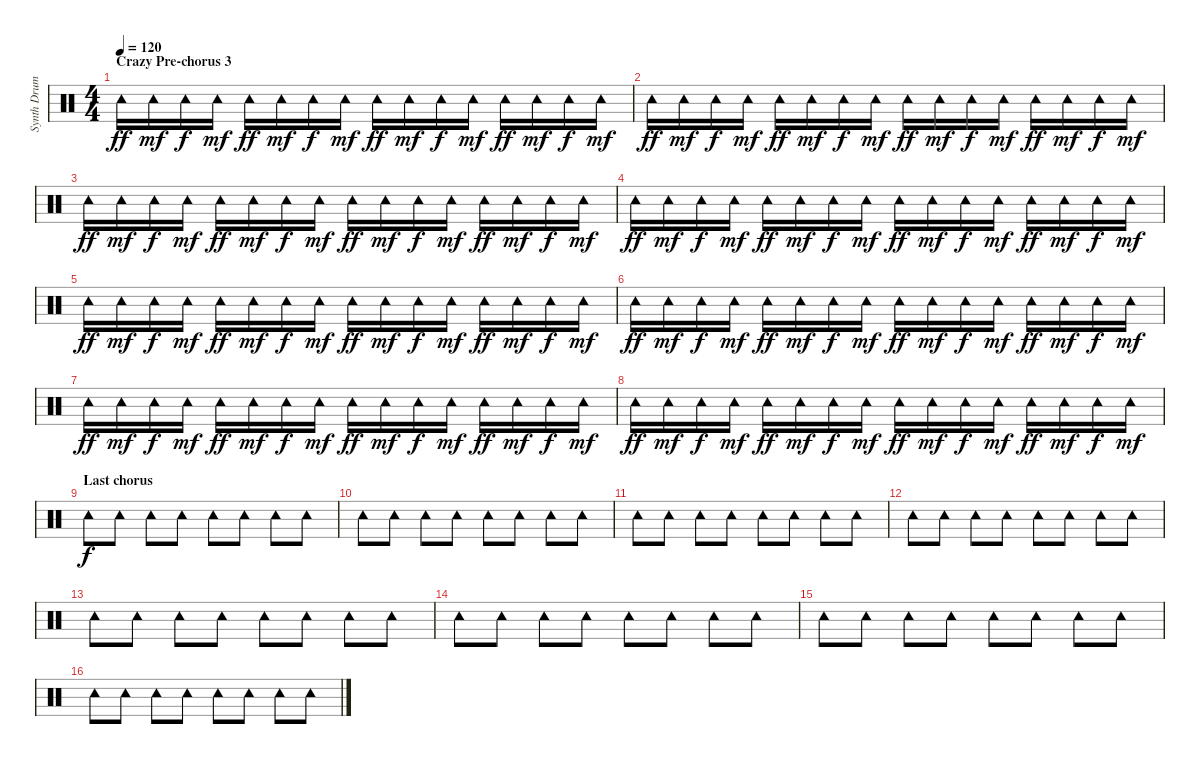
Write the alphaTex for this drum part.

\track ("Synth Drums hihat etc..." "Synth Drum") {instrument percussion}
\staff {score}
\articulation defaults
\ts (4 4)
\section ("" "Crazy Pre-chorus 3")
\tempo 120
\clef neutral
\ks c "Tambourine (hit)".16{dy ff} "Tambourine (hit)".16{dy mf} "Tambourine (hit)".16{dy f} "Tambourine (hit)".16{dy mf} "Tambourine (hit)".16{dy ff} "Tambourine (hit)".16{dy mf} "Tambourine (hit)".16{dy f} "Tambourine (hit)".16{dy mf} "Tambourine (hit)".16{dy ff} "Tambourine (hit)".16{dy mf} "Tambourine (hit)".16{dy f} "Tambourine (hit)".16{dy mf} "Tambourine (hit)".16{dy ff} "Tambourine (hit)".16{dy mf} "Tambourine (hit)".16{dy f} "Tambourine (hit)".16{dy mf}
|
"Tambourine (hit)".16{dy ff} "Tambourine (hit)".16{dy mf} "Tambourine (hit)".16{dy f} "Tambourine (hit)".16{dy mf} "Tambourine (hit)".16{dy ff} "Tambourine (hit)".16{dy mf} "Tambourine (hit)".16{dy f} "Tambourine (hit)".16{dy mf} "Tambourine (hit)".16{dy ff} "Tambourine (hit)".16{dy mf} "Tambourine (hit)".16{dy f} "Tambourine (hit)".16{dy mf} "Tambourine (hit)".16{dy ff} "Tambourine (hit)".16{dy mf} "Tambourine (hit)".16{dy f} "Tambourine (hit)".16{dy mf} |
"Tambourine (hit)".16{dy ff} "Tambourine (hit)".16{dy mf} "Tambourine (hit)".16{dy f} "Tambourine (hit)".16{dy mf} "Tambourine (hit)".16{dy ff} "Tambourine (hit)".16{dy mf} "Tambourine (hit)".16{dy f} "Tambourine (hit)".16{dy mf} "Tambourine (hit)".16{dy ff} "Tambourine (hit)".16{dy mf} "Tambourine (hit)".16{dy f} "Tambourine (hit)".16{dy mf} "Tambourine (hit)".16{dy ff} "Tambourine (hit)".16{dy mf} "Tambourine (hit)".16{dy f} "Tambourine (hit)".16{dy mf} |
"Tambourine (hit)".16{dy ff} "Tambourine (hit)".16{dy mf} "Tambourine (hit)".16{dy f} "Tambourine (hit)".16{dy mf} "Tambourine (hit)".16{dy ff} "Tambourine (hit)".16{dy mf} "Tambourine (hit)".16{dy f} "Tambourine (hit)".16{dy mf} "Tambourine (hit)".16{dy ff} "Tambourine (hit)".16{dy mf} "Tambourine (hit)".16{dy f} "Tambourine (hit)".16{dy mf} "Tambourine (hit)".16{dy ff} "Tambourine (hit)".16{dy mf} "Tambourine (hit)".16{dy f} "Tambourine (hit)".16{dy mf} |
"Tambourine (hit)".16{dy ff} "Tambourine (hit)".16{dy mf} "Tambourine (hit)".16{dy f} "Tambourine (hit)".16{dy mf} "Tambourine (hit)".16{dy ff} "Tambourine (hit)".16{dy mf} "Tambourine (hit)".16{dy f} "Tambourine (hit)".16{dy mf} "Tambourine (hit)".16{dy ff} "Tambourine (hit)".16{dy mf} "Tambourine (hit)".16{dy f} "Tambourine (hit)".16{dy mf} "Tambourine (hit)".16{dy ff} "Tambourine (hit)".16{dy mf} "Tambourine (hit)".16{dy f} "Tambourine (hit)".16{dy mf} |
"Tambourine (hit)".16{dy ff} "Tambourine (hit)".16{dy mf} "Tambourine (hit)".16{dy f} "Tambourine (hit)".16{dy mf} "Tambourine (hit)".16{dy ff} "Tambourine (hit)".16{dy mf} "Tambourine (hit)".16{dy f} "Tambourine (hit)".16{dy mf} "Tambourine (hit)".16{dy ff} "Tambourine (hit)".16{dy mf} "Tambourine (hit)".16{dy f} "Tambourine (hit)".16{dy mf} "Tambourine (hit)".16{dy ff} "Tambourine (hit)".16{dy mf} "Tambourine (hit)".16{dy f} "Tambourine (hit)".16{dy mf} |
"Tambourine (hit)".16{dy ff} "Tambourine (hit)".16{dy mf} "Tambourine (hit)".16{dy f} "Tambourine (hit)".16{dy mf} "Tambourine (hit)".16{dy ff} "Tambourine (hit)".16{dy mf} "Tambourine (hit)".16{dy f} "Tambourine (hit)".16{dy mf} "Tambourine (hit)".16{dy ff} "Tambourine (hit)".16{dy mf} "Tambourine (hit)".16{dy f} "Tambourine (hit)".16{dy mf} "Tambourine (hit)".16{dy ff} "Tambourine (hit)".16{dy mf} "Tambourine (hit)".16{dy f} "Tambourine (hit)".16{dy mf} |
"Tambourine (hit)".16{dy ff} "Tambourine (hit)".16{dy mf} "Tambourine (hit)".16{dy f} "Tambourine (hit)".16{dy mf} "Tambourine (hit)".16{dy ff} "Tambourine (hit)".16{dy mf} "Tambourine (hit)".16{dy f} "Tambourine (hit)".16{dy mf} "Tambourine (hit)".16{dy ff} "Tambourine (hit)".16{dy mf} "Tambourine (hit)".16{dy f} "Tambourine (hit)".16{dy mf} "Tambourine (hit)".16{dy ff} "Tambourine (hit)".16{dy mf} "Tambourine (hit)".16{dy f} "Tambourine (hit)".16{dy mf} |
\section ("" "Last chorus")
"Tambourine (hit)".8{dy f} "Tambourine (hit)".8 "Tambourine (hit)".8 "Tambourine (hit)".8 "Tambourine (hit)".8 "Tambourine (hit)".8 "Tambourine (hit)".8 "Tambourine (hit)".8 |
"Tambourine (hit)".8 "Tambourine (hit)".8 "Tambourine (hit)".8 "Tambourine (hit)".8 "Tambourine (hit)".8 "Tambourine (hit)".8 "Tambourine (hit)".8 "Tambourine (hit)".8 |
"Tambourine (hit)".8 "Tambourine (hit)".8 "Tambourine (hit)".8 "Tambourine (hit)".8 "Tambourine (hit)".8 "Tambourine (hit)".8 "Tambourine (hit)".8 "Tambourine (hit)".8 |
"Tambourine (hit)".8 "Tambourine (hit)".8 "Tambourine (hit)".8 "Tambourine (hit)".8 "Tambourine (hit)".8 "Tambourine (hit)".8 "Tambourine (hit)".8 "Tambourine (hit)".8 |
"Tambourine (hit)".8 "Tambourine (hit)".8 "Tambourine (hit)".8 "Tambourine (hit)".8 "Tambourine (hit)".8 "Tambourine (hit)".8 "Tambourine (hit)".8 "Tambourine (hit)".8 |
"Tambourine (hit)".8 "Tambourine (hit)".8 "Tambourine (hit)".8 "Tambourine (hit)".8 "Tambourine (hit)".8 "Tambourine (hit)".8 "Tambourine (hit)".8 "Tambourine (hit)".8 |
"Tambourine (hit)".8 "Tambourine (hit)".8 "Tambourine (hit)".8 "Tambourine (hit)".8 "Tambourine (hit)".8 "Tambourine (hit)".8 "Tambourine (hit)".8 "Tambourine (hit)".8 |
"Tambourine (hit)".8 "Tambourine (hit)".8 "Tambourine (hit)".8 "Tambourine (hit)".8 "Tambourine (hit)".8 "Tambourine (hit)".8 "Tambourine (hit)".8 "Tambourine (hit)".8
